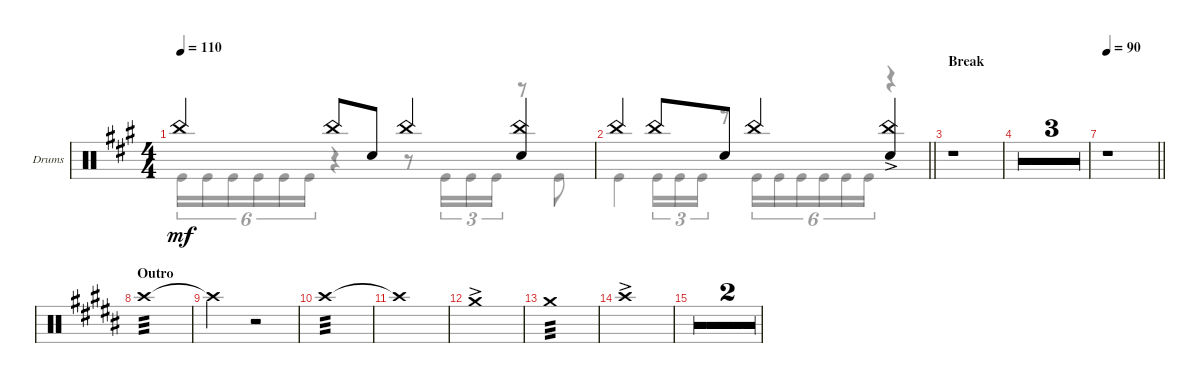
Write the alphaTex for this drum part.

\defaultSystemsLayout 4
\bracketExtendMode groupsimilarinstruments
\firstSystemTrackNameOrientation horizontal
\otherSystemsTrackNameOrientation horizontal
\track ("Drums" "Drums") {multiBarRest instrument percussion}
\staff {score}
\articulation defaults
\voice
\ts (4 4)
\tempo 110
\clef neutral
\ks a "China (hit)".4{dy mf} "China (hit)".8 "Snare (hit) 2".8 "China (hit)".4
("China (hit)" "Snare (hit) 2").4 |
\barLineRight lightlight "China (hit)".4 "China (hit)".8 "Snare (hit) 2".8 "China (hit)".4
("China (hit)" "Snare (hit) 2"{ac}).4 |
\section ("" "Break")
r.1 |
r.1 |
r.1 |
r.1 |
\tempo 90
\barLineRight lightlight
r.1 |
\section ("" "Outro")
\ks b "Crash high (hit)".1{tp 3}
|
"Crash high (hit)"{t}.2 r.2 |
"Crash high (hit)".1{tp 3} |
"Crash high (hit)"{t}.1 |
"Crash medium (hit)"{ac}.1 |
"Crash medium (hit)".1{tp 3} |
"Crash high (hit)"{ac}.1 |
r.1 |
r.1
\voice
\clef neutral
\ottava regular
\simile none
\ks a "Kick (hit)".16{tu (6 4) dy mf} "Kick (hit)".16{tu (6 4)} "Kick (hit)".16{tu (6 4)} "Kick (hit)".16{tu (6 4)} "Kick (hit)".16{tu (6 4)} "Kick (hit)".16{tu (6 4)}
r.4 r.8 "Kick (hit)".16{tu (3 2)} "Kick (hit)".16{tu (3 2)} "Kick (hit)".16{tu (3 2)} r.8 "Kick (hit)".8 |
\barLineRight lightlight "Kick (hit)".4 "Kick (hit)".16{tu (3 2)} "Kick (hit)".16{tu (3 2)} "Kick (hit)".16{tu (3 2)}
r.8 "Kick (hit)".16{tu (6 4)} "Kick (hit)".16{tu (6 4)} "Kick (hit)".16{tu (6 4)} "Kick (hit)".16{tu (6 4)} "Kick (hit)".16{tu (6 4)} "Kick (hit)".16{tu (6 4)} r.4 |
|
|
|
|
\barLineRight lightlight
|
\ks b
|
|
|
|
|
|
|
|
